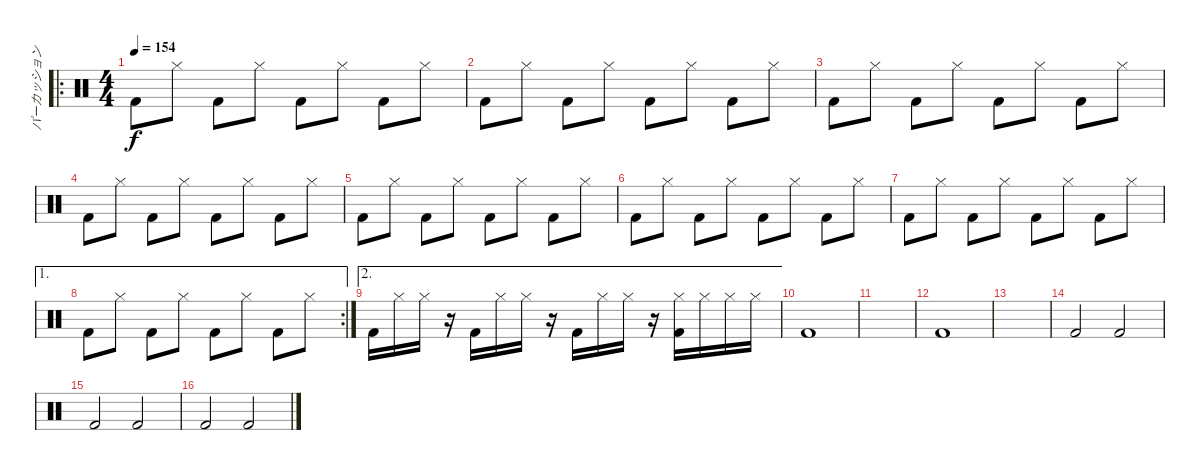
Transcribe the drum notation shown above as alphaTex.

\track ("パーカッション" "パーカッション") {instrument percussion}
\staff {score}
\articulation defaults
\ro
\ts (4 4)
\tempo 154
\clef neutral
\ks c "Kick (hit) 2".8{dy f} "Hi-Hat (closed)".8 "Kick (hit) 2".8 "Hi-Hat (closed)".8 "Kick (hit) 2".8 "Hi-Hat (closed)".8 "Kick (hit) 2".8 "Hi-Hat (closed)".8
|
"Kick (hit) 2".8 "Hi-Hat (closed)".8 "Kick (hit) 2".8 "Hi-Hat (closed)".8 "Kick (hit) 2".8 "Hi-Hat (closed)".8 "Kick (hit) 2".8 "Hi-Hat (closed)".8 |
"Kick (hit) 2".8 "Hi-Hat (closed)".8 "Kick (hit) 2".8 "Hi-Hat (closed)".8 "Kick (hit) 2".8 "Hi-Hat (closed)".8 "Kick (hit) 2".8 "Hi-Hat (closed)".8 |
"Kick (hit) 2".8 "Hi-Hat (closed)".8 "Kick (hit) 2".8 "Hi-Hat (closed)".8 "Kick (hit) 2".8 "Hi-Hat (closed)".8 "Kick (hit) 2".8 "Hi-Hat (closed)".8 |
"Kick (hit) 2".8 "Hi-Hat (closed)".8 "Kick (hit) 2".8 "Hi-Hat (closed)".8 "Kick (hit) 2".8 "Hi-Hat (closed)".8 "Kick (hit) 2".8 "Hi-Hat (closed)".8 |
"Kick (hit) 2".8 "Hi-Hat (closed)".8 "Kick (hit) 2".8 "Hi-Hat (closed)".8 "Kick (hit) 2".8 "Hi-Hat (closed)".8 "Kick (hit) 2".8 "Hi-Hat (closed)".8 |
"Kick (hit) 2".8 "Hi-Hat (closed)".8 "Kick (hit) 2".8 "Hi-Hat (closed)".8 "Kick (hit) 2".8 "Hi-Hat (closed)".8 "Kick (hit) 2".8 "Hi-Hat (closed)".8 |
\ae 1
\rc 2 "Kick (hit) 2".8 "Hi-Hat (closed)".8 "Kick (hit) 2".8 "Hi-Hat (closed)".8 "Kick (hit) 2".8 "Hi-Hat (closed)".8 "Kick (hit) 2".8 "Hi-Hat (closed)".8
|
\ae 2 "Kick (hit) 2".16 "Hi-Hat (closed)".16 "Hi-Hat (closed)".16
r.16 "Kick (hit) 2".16 "Hi-Hat (closed)".16 "Hi-Hat (closed)".16 r.16 "Kick (hit) 2".16 "Hi-Hat (closed)".16 "Hi-Hat (closed)".16 r.16 ("Hi-Hat (closed)" "Kick (hit) 2").16 "Hi-Hat (closed)".16 "Hi-Hat (closed)".16 "Hi-Hat (closed)".16 |
"Kick (hit) 2".1 |
|
"Kick (hit) 2".1 |
|
"Kick (hit) 2".2 "Kick (hit) 2".2 |
"Kick (hit) 2".2 "Kick (hit) 2".2 |
"Kick (hit) 2".2 "Kick (hit) 2".2
